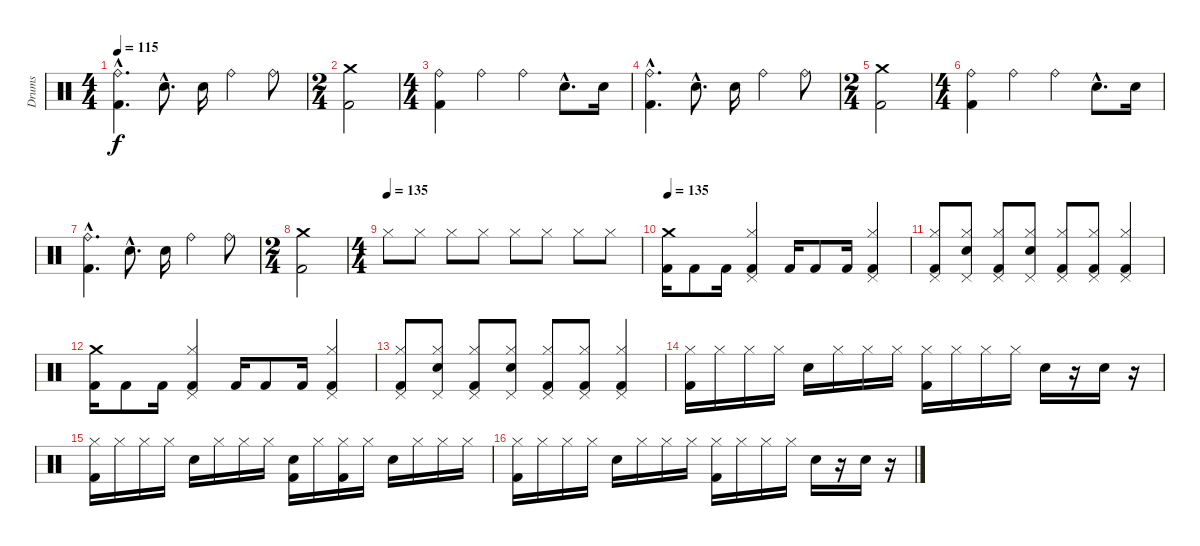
\track ("Drums" "Drums") {instrument percussion}
\staff {score}
\articulation defaults
\ts (4 4)
\tempo 115
\clef neutral
\ks c
("Kick (hit) 2"{hac} "Ride (bell)"{hac}).4{d dy f} "Snare (hit) 2"{hac}.8{d} "Snare (hit) 2".16 "Ride (bell)".4 "Ride (bell)".8 |
\ts (2 4)
("Kick (hit) 2" "Crash medium (hit)").2 |
\ts (4 4)
("Kick (hit) 2" "Ride (bell)").4 "Ride (bell)".4 "Ride (bell)".4 "Snare (hit) 2"{hac}.8{d} "Snare (hit) 2".16 |
("Kick (hit) 2"{hac} "Ride (bell)"{hac}).4{d} "Snare (hit) 2"{hac}.8{d} "Snare (hit) 2".16 "Ride (bell)".4 "Ride (bell)".8 |
\ts (2 4)
("Kick (hit) 2" "Crash medium (hit)").2 |
\ts (4 4)
("Kick (hit) 2" "Ride (bell)").4 "Ride (bell)".4 "Ride (bell)".4 "Snare (hit) 2"{hac}.8{d} "Snare (hit) 2".16 |
("Kick (hit) 2"{hac} "Ride (bell)"{hac}).4{d} "Snare (hit) 2"{hac}.8{d} "Snare (hit) 2".16 "Ride (bell)".4 "Ride (bell)".8 |
\ts (2 4)
("Kick (hit) 2" "Crash medium (hit)").2 |
\ts (4 4)
\tempo (135)
"Hi-Hat (closed)".8 "Hi-Hat (closed)".8 "Hi-Hat (closed)".8 "Hi-Hat (closed)".8 "Hi-Hat (closed)".8 "Hi-Hat (closed)".8 "Hi-Hat (closed)".8 "Hi-Hat (closed)".8 |
\tempo 135
("Kick (hit) 2" "Crash medium (hit)").16 "Kick (hit) 2".8 "Kick (hit) 2".16 ("Kick (hit) 2" "Pedal Hi-Hat (hit)" "Hi-Hat (closed)").4 "Kick (hit) 2".16 "Kick (hit) 2".8 "Kick (hit) 2".16 ("Kick (hit) 2" "Pedal Hi-Hat (hit)" "Hi-Hat (closed)").4 |
("Kick (hit) 2" "Pedal Hi-Hat (hit)" "Hi-Hat (closed)").8 ("Snare (hit) 2" "Pedal Hi-Hat (hit)" "Hi-Hat (closed)").8 ("Kick (hit) 2" "Pedal Hi-Hat (hit)" "Hi-Hat (closed)").8 ("Snare (hit) 2" "Pedal Hi-Hat (hit)" "Hi-Hat (closed)").8 ("Kick (hit) 2" "Pedal Hi-Hat (hit)" "Hi-Hat (closed)").8 ("Kick (hit) 2" "Pedal Hi-Hat (hit)" "Hi-Hat (closed)").8 ("Kick (hit) 2" "Pedal Hi-Hat (hit)" "Hi-Hat (closed)").4 |
("Kick (hit) 2" "Crash medium (hit)").16 "Kick (hit) 2".8 "Kick (hit) 2".16 ("Kick (hit) 2" "Pedal Hi-Hat (hit)" "Hi-Hat (closed)").4 "Kick (hit) 2".16 "Kick (hit) 2".8 "Kick (hit) 2".16 ("Kick (hit) 2" "Pedal Hi-Hat (hit)" "Hi-Hat (closed)").4 |
("Kick (hit) 2" "Pedal Hi-Hat (hit)" "Hi-Hat (closed)").8 ("Snare (hit) 2" "Pedal Hi-Hat (hit)" "Hi-Hat (closed)").8 ("Kick (hit) 2" "Pedal Hi-Hat (hit)" "Hi-Hat (closed)").8 ("Snare (hit) 2" "Pedal Hi-Hat (hit)" "Hi-Hat (closed)").8 ("Kick (hit) 2" "Pedal Hi-Hat (hit)" "Hi-Hat (closed)").8 ("Kick (hit) 2" "Pedal Hi-Hat (hit)" "Hi-Hat (closed)").8 ("Kick (hit) 2" "Pedal Hi-Hat (hit)" "Hi-Hat (closed)").4 |
("Kick (hit) 2" "Hi-Hat (closed)").16{volume 5} "Hi-Hat (closed)".16 "Hi-Hat (closed)".16 "Hi-Hat (closed)".16 "Electric Snare (hit)".16 "Hi-Hat (closed)".16 "Hi-Hat (closed)".16 "Hi-Hat (closed)".16 ("Kick (hit) 2" "Hi-Hat (closed)").16 "Hi-Hat (closed)".16 "Hi-Hat (closed)".16 "Hi-Hat (closed)".16 "Electric Snare (hit)".16 r.16 "Electric Snare (hit)".16 r.16 |
("Kick (hit) 2" "Hi-Hat (closed)").16 "Hi-Hat (closed)".16 "Hi-Hat (closed)".16 "Hi-Hat (closed)".16 "Electric Snare (hit)".16 "Hi-Hat (closed)".16 "Hi-Hat (closed)".16 "Hi-Hat (closed)".16 ("Kick (hit) 2" "Snare (hit)").16 "Hi-Hat (closed)".16 ("Kick (hit) 2" "Hi-Hat (closed)").16 "Hi-Hat (closed)".16 "Electric Snare (hit)".16 "Hi-Hat (closed)".16 "Hi-Hat (closed)".16 "Hi-Hat (closed)".16 |
("Kick (hit) 2" "Hi-Hat (closed)").16 "Hi-Hat (closed)".16 "Hi-Hat (closed)".16 "Hi-Hat (closed)".16 "Electric Snare (hit)".16 "Hi-Hat (closed)".16 "Hi-Hat (closed)".16 "Hi-Hat (closed)".16 ("Kick (hit) 2" "Hi-Hat (closed)").16 "Hi-Hat (closed)".16 "Hi-Hat (closed)".16 "Hi-Hat (closed)".16 "Electric Snare (hit)".16 r.16 "Electric Snare (hit)".16 r.16
